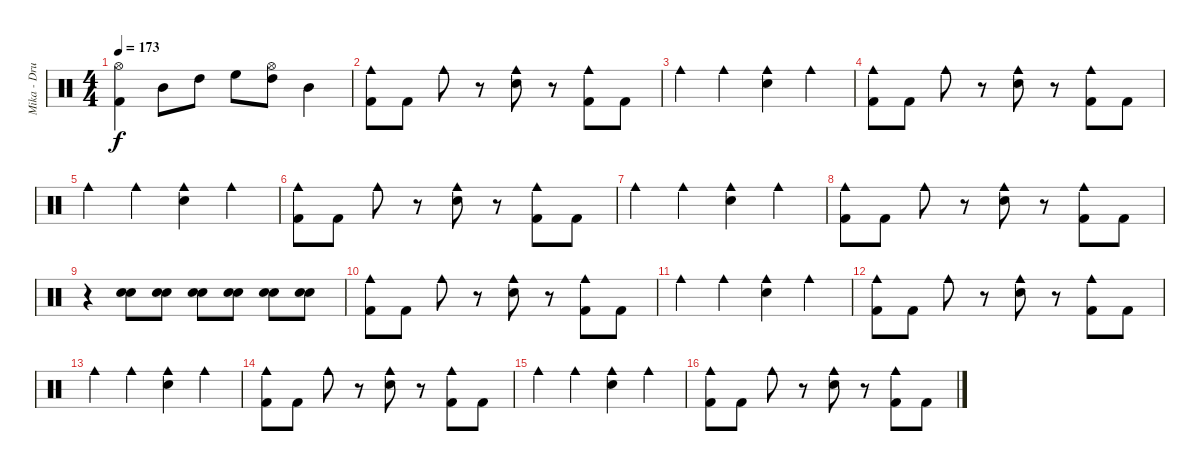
\track ("Mika - Drums" "Mika - Dru") {instrument percussion}
\staff {score}
\articulation defaults
\ts (4 4)
\tempo 173
\clef neutral
\ks c
("Hi-Hat (open)" "Kick (hit) 2").4{dy f} "Mid Tom (hit)".8 "High Tom (hit)".8 "High Floor Tom (hit)".8 ("Hi-Hat (open)" "High Tom (hit)").8 "Mid Tom (hit)".4 |
("Cowbell medium (hit)" "Kick (hit) 2").8 "Kick (hit) 2".8 "Cowbell medium (hit)".8 r.8 ("Cowbell medium (hit)" "Electric Snare (hit)").8 r.8 ("Cowbell medium (hit)" "Kick (hit) 2").8 "Kick (hit) 2".8 |
"Cowbell medium (hit)".4 "Cowbell medium (hit)".4 ("Cowbell medium (hit)" "Electric Snare (hit)").4 "Cowbell medium (hit)".4 |
("Cowbell medium (hit)" "Kick (hit) 2").8 "Kick (hit) 2".8 "Cowbell medium (hit)".8 r.8 ("Cowbell medium (hit)" "Electric Snare (hit)").8 r.8 ("Cowbell medium (hit)" "Kick (hit) 2").8 "Kick (hit) 2".8 |
"Cowbell medium (hit)".4 "Cowbell medium (hit)".4 ("Cowbell medium (hit)" "Electric Snare (hit)").4 "Cowbell medium (hit)".4 |
("Cowbell medium (hit)" "Kick (hit) 2").8 "Kick (hit) 2".8 "Cowbell medium (hit)".8 r.8 ("Cowbell medium (hit)" "Electric Snare (hit)").8 r.8 ("Cowbell medium (hit)" "Kick (hit) 2").8 "Kick (hit) 2".8 |
"Cowbell medium (hit)".4 "Cowbell medium (hit)".4 ("Cowbell medium (hit)" "Electric Snare (hit)").4 "Cowbell medium (hit)".4 |
("Cowbell medium (hit)" "Kick (hit) 2").8 "Kick (hit) 2".8 "Cowbell medium (hit)".8 r.8 ("Cowbell medium (hit)" "Electric Snare (hit)").8 r.8 ("Cowbell medium (hit)" "Kick (hit) 2").8 "Kick (hit) 2".8 |
r.4 ("Snare (hit) 2" "Electric Snare (hit)").8 ("Snare (hit) 2" "Electric Snare (hit)").8 ("Snare (hit) 2" "Electric Snare (hit)").8 ("Snare (hit) 2" "Electric Snare (hit)").8 ("Snare (hit) 2" "Electric Snare (hit)").8 ("Snare (hit) 2" "Electric Snare (hit)").8 |
("Cowbell medium (hit)" "Kick (hit) 2").8 "Kick (hit) 2".8 "Cowbell medium (hit)".8 r.8 ("Cowbell medium (hit)" "Electric Snare (hit)").8 r.8 ("Cowbell medium (hit)" "Kick (hit) 2").8 "Kick (hit) 2".8 |
"Cowbell medium (hit)".4 "Cowbell medium (hit)".4 ("Cowbell medium (hit)" "Electric Snare (hit)").4 "Cowbell medium (hit)".4 |
("Cowbell medium (hit)" "Kick (hit) 2").8 "Kick (hit) 2".8 "Cowbell medium (hit)".8 r.8 ("Cowbell medium (hit)" "Electric Snare (hit)").8 r.8 ("Cowbell medium (hit)" "Kick (hit) 2").8 "Kick (hit) 2".8 |
"Cowbell medium (hit)".4 "Cowbell medium (hit)".4 ("Cowbell medium (hit)" "Electric Snare (hit)").4 "Cowbell medium (hit)".4 |
("Cowbell medium (hit)" "Kick (hit) 2").8 "Kick (hit) 2".8 "Cowbell medium (hit)".8 r.8 ("Cowbell medium (hit)" "Electric Snare (hit)").8 r.8 ("Cowbell medium (hit)" "Kick (hit) 2").8 "Kick (hit) 2".8 |
"Cowbell medium (hit)".4 "Cowbell medium (hit)".4 ("Cowbell medium (hit)" "Electric Snare (hit)").4 "Cowbell medium (hit)".4 |
("Cowbell medium (hit)" "Kick (hit) 2").8 "Kick (hit) 2".8 "Cowbell medium (hit)".8 r.8 ("Cowbell medium (hit)" "Electric Snare (hit)").8 r.8 ("Cowbell medium (hit)" "Kick (hit) 2").8 "Kick (hit) 2".8
